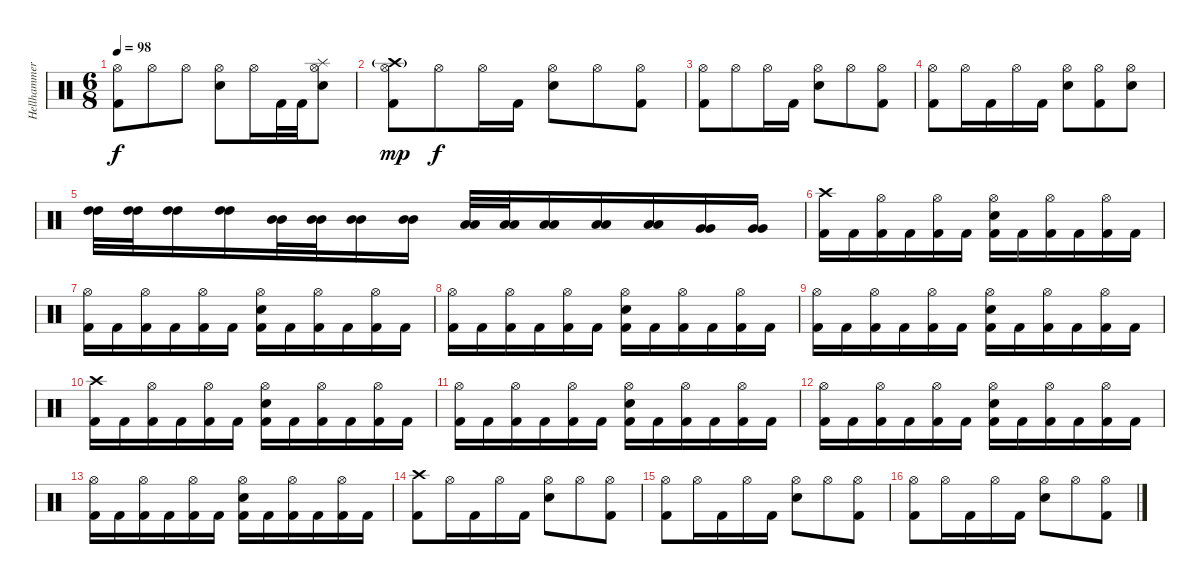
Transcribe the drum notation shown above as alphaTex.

\track ("Hellhammer (Drums)" "Hellhammer") {instrument percussion}
\staff {score}
\articulation defaults
\ts (6 8)
\tempo 98
\clef neutral
\ks c
("Kick (hit) 2" "Hi-Hat (open)").8{dy f} "Hi-Hat (open)".8 "Hi-Hat (open)".8 ("Electric Snare (hit)" "Hi-Hat (open)").8 "Hi-Hat (open)".16 "Kick (hit) 2".32 "Kick (hit) 2".32 ("Electric Snare (hit)" "Hi-Hat (open)" "Splash (hit)").8 |
("Kick (hit) 2" "Hi-Hat (open)" "Crash high (hit)"{g}).8{dy mp} "Hi-Hat (open)".8{dy f} "Hi-Hat (open)".16 "Kick (hit) 2".16 ("Electric Snare (hit)" "Hi-Hat (open)").8 "Hi-Hat (open)".8 ("Kick (hit) 2" "Hi-Hat (open)").8 |
("Kick (hit) 2" "Hi-Hat (open)").8 "Hi-Hat (open)".8 "Hi-Hat (open)".16 "Kick (hit) 2".16 ("Electric Snare (hit)" "Hi-Hat (open)").8 "Hi-Hat (open)".8 ("Kick (hit) 2" "Hi-Hat (open)").8 |
("Kick (hit) 2" "Hi-Hat (open)").8 "Hi-Hat (open)".16 "Kick (hit) 2".16 "Hi-Hat (open)".16 "Kick (hit) 2".16 ("Electric Snare (hit)" "Hi-Hat (open)").8 ("Kick (hit) 2" "Hi-Hat (open)").8 ("Electric Snare (hit)" "Hi-Hat (open)").8 |
("High Tom (hit)" "High Tom (hit)").32 ("High Tom (hit)" "High Tom (hit)").32 ("High Tom (hit)" "High Tom (hit)").16 ("High Tom (hit)" "High Tom (hit)").16 ("Mid Tom (hit)" "Mid Tom (hit)").32 ("Mid Tom (hit)" "Mid Tom (hit)").32 ("Mid Tom (hit)" "Mid Tom (hit)").16 ("Mid Tom (hit)" "Mid Tom (hit)").16 ("Low Tom (hit)" "Low Tom (hit)").32 ("Low Tom (hit)" "Low Tom (hit)").32 ("Low Tom (hit)" "Low Tom (hit)").16 ("Low Tom (hit)" "Low Tom (hit)").16 ("Low Tom (hit)" "Low Tom (hit)").16 ("Very Low Tom (hit)" "Very Low Tom (hit)").16 ("Very Low Tom (hit)" "Very Low Tom (hit)").16 |
("Kick (hit) 2" "Crash high (hit)").16 "Kick (hit) 2".16 ("Kick (hit) 2" "Hi-Hat (open)").16 "Kick (hit) 2".16 ("Kick (hit) 2" "Hi-Hat (open)").16 "Kick (hit) 2".16 ("Kick (hit) 2" "Electric Snare (hit)" "Hi-Hat (open)").16 "Kick (hit) 2".16 ("Kick (hit) 2" "Hi-Hat (open)").16 "Kick (hit) 2".16 ("Kick (hit) 2" "Hi-Hat (open)").16 "Kick (hit) 2".16 |
("Kick (hit) 2" "Hi-Hat (open)").16 "Kick (hit) 2".16 ("Kick (hit) 2" "Hi-Hat (open)").16 "Kick (hit) 2".16 ("Kick (hit) 2" "Hi-Hat (open)").16 "Kick (hit) 2".16 ("Kick (hit) 2" "Electric Snare (hit)" "Hi-Hat (open)").16 "Kick (hit) 2".16 ("Kick (hit) 2" "Hi-Hat (open)").16 "Kick (hit) 2".16 ("Kick (hit) 2" "Hi-Hat (open)").16 "Kick (hit) 2".16 |
("Kick (hit) 2" "Hi-Hat (open)").16 "Kick (hit) 2".16 ("Kick (hit) 2" "Hi-Hat (open)").16 "Kick (hit) 2".16 ("Kick (hit) 2" "Hi-Hat (open)").16 "Kick (hit) 2".16 ("Kick (hit) 2" "Electric Snare (hit)" "Hi-Hat (open)").16 "Kick (hit) 2".16 ("Kick (hit) 2" "Hi-Hat (open)").16 "Kick (hit) 2".16 ("Kick (hit) 2" "Hi-Hat (open)").16 "Kick (hit) 2".16 |
("Kick (hit) 2" "Hi-Hat (open)").16 "Kick (hit) 2".16 ("Kick (hit) 2" "Hi-Hat (open)").16 "Kick (hit) 2".16 ("Kick (hit) 2" "Hi-Hat (open)").16 "Kick (hit) 2".16 ("Kick (hit) 2" "Electric Snare (hit)" "Hi-Hat (open)").16 "Kick (hit) 2".16 ("Kick (hit) 2" "Hi-Hat (open)").16 "Kick (hit) 2".16 ("Kick (hit) 2" "Hi-Hat (open)").16 "Kick (hit) 2".16 |
("Kick (hit) 2" "Crash high (hit)").16 "Kick (hit) 2".16 ("Kick (hit) 2" "Hi-Hat (open)").16 "Kick (hit) 2".16 ("Kick (hit) 2" "Hi-Hat (open)").16 "Kick (hit) 2".16 ("Kick (hit) 2" "Electric Snare (hit)" "Hi-Hat (open)").16 "Kick (hit) 2".16 ("Kick (hit) 2" "Hi-Hat (open)").16 "Kick (hit) 2".16 ("Kick (hit) 2" "Hi-Hat (open)").16 "Kick (hit) 2".16 |
("Kick (hit) 2" "Hi-Hat (open)").16 "Kick (hit) 2".16 ("Kick (hit) 2" "Hi-Hat (open)").16 "Kick (hit) 2".16 ("Kick (hit) 2" "Hi-Hat (open)").16 "Kick (hit) 2".16 ("Kick (hit) 2" "Electric Snare (hit)" "Hi-Hat (open)").16 "Kick (hit) 2".16 ("Kick (hit) 2" "Hi-Hat (open)").16 "Kick (hit) 2".16 ("Kick (hit) 2" "Hi-Hat (open)").16 "Kick (hit) 2".16 |
("Kick (hit) 2" "Hi-Hat (open)").16 "Kick (hit) 2".16 ("Kick (hit) 2" "Hi-Hat (open)").16 "Kick (hit) 2".16 ("Kick (hit) 2" "Hi-Hat (open)").16 "Kick (hit) 2".16 ("Kick (hit) 2" "Electric Snare (hit)" "Hi-Hat (open)").16 "Kick (hit) 2".16 ("Kick (hit) 2" "Hi-Hat (open)").16 "Kick (hit) 2".16 ("Kick (hit) 2" "Hi-Hat (open)").16 "Kick (hit) 2".16 |
("Kick (hit) 2" "Hi-Hat (open)").16 "Kick (hit) 2".16 ("Kick (hit) 2" "Hi-Hat (open)").16 "Kick (hit) 2".16 ("Kick (hit) 2" "Hi-Hat (open)").16 "Kick (hit) 2".16 ("Kick (hit) 2" "Electric Snare (hit)" "Hi-Hat (open)").16 "Kick (hit) 2".16 ("Kick (hit) 2" "Hi-Hat (open)").16 "Kick (hit) 2".16 ("Kick (hit) 2" "Hi-Hat (open)").16 "Kick (hit) 2".16 |
("Kick (hit) 2" "Crash high (hit)").8 "Hi-Hat (open)".16 "Kick (hit) 2".16 "Hi-Hat (open)".16 "Kick (hit) 2".16 ("Electric Snare (hit)" "Hi-Hat (open)").8 "Hi-Hat (open)".8 ("Kick (hit) 2" "Hi-Hat (open)").8 |
("Kick (hit) 2" "Hi-Hat (open)").8 "Hi-Hat (open)".16 "Kick (hit) 2".16 "Hi-Hat (open)".16 "Kick (hit) 2".16 ("Electric Snare (hit)" "Hi-Hat (open)").8 "Hi-Hat (open)".8 ("Kick (hit) 2" "Hi-Hat (open)").8 |
("Kick (hit) 2" "Hi-Hat (open)").8 "Hi-Hat (open)".16 "Kick (hit) 2".16 "Hi-Hat (open)".16 "Kick (hit) 2".16 ("Electric Snare (hit)" "Hi-Hat (open)").8 "Hi-Hat (open)".8 ("Kick (hit) 2" "Hi-Hat (open)").8
